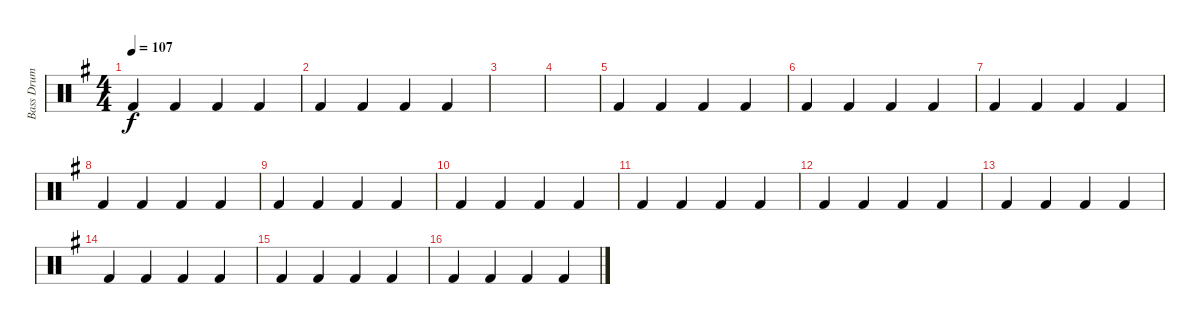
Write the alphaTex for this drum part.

\track ("Bass Drum" "Bass Drum") {instrument percussion}
\staff {score}
\articulation defaults
\ts (4 4)
\tempo 107
\clef neutral
\ks g "Kick (hit) 2".4{dy f} "Kick (hit) 2".4 "Kick (hit) 2".4 "Kick (hit) 2".4
|
"Kick (hit) 2".4 "Kick (hit) 2".4 "Kick (hit) 2".4 "Kick (hit) 2".4 |
|
|
"Kick (hit) 2".4 "Kick (hit) 2".4 "Kick (hit) 2".4 "Kick (hit) 2".4 |
"Kick (hit) 2".4 "Kick (hit) 2".4 "Kick (hit) 2".4 "Kick (hit) 2".4 |
"Kick (hit) 2".4 "Kick (hit) 2".4 "Kick (hit) 2".4 "Kick (hit) 2".4 |
"Kick (hit) 2".4 "Kick (hit) 2".4 "Kick (hit) 2".4 "Kick (hit) 2".4 |
"Kick (hit) 2".4 "Kick (hit) 2".4 "Kick (hit) 2".4 "Kick (hit) 2".4 |
"Kick (hit) 2".4 "Kick (hit) 2".4 "Kick (hit) 2".4 "Kick (hit) 2".4 |
"Kick (hit) 2".4 "Kick (hit) 2".4 "Kick (hit) 2".4 "Kick (hit) 2".4 |
"Kick (hit) 2".4 "Kick (hit) 2".4 "Kick (hit) 2".4 "Kick (hit) 2".4 |
"Kick (hit) 2".4 "Kick (hit) 2".4 "Kick (hit) 2".4 "Kick (hit) 2".4 |
"Kick (hit) 2".4 "Kick (hit) 2".4 "Kick (hit) 2".4 "Kick (hit) 2".4 |
"Kick (hit) 2".4 "Kick (hit) 2".4 "Kick (hit) 2".4 "Kick (hit) 2".4 |
"Kick (hit) 2".4 "Kick (hit) 2".4 "Kick (hit) 2".4 "Kick (hit) 2".4
